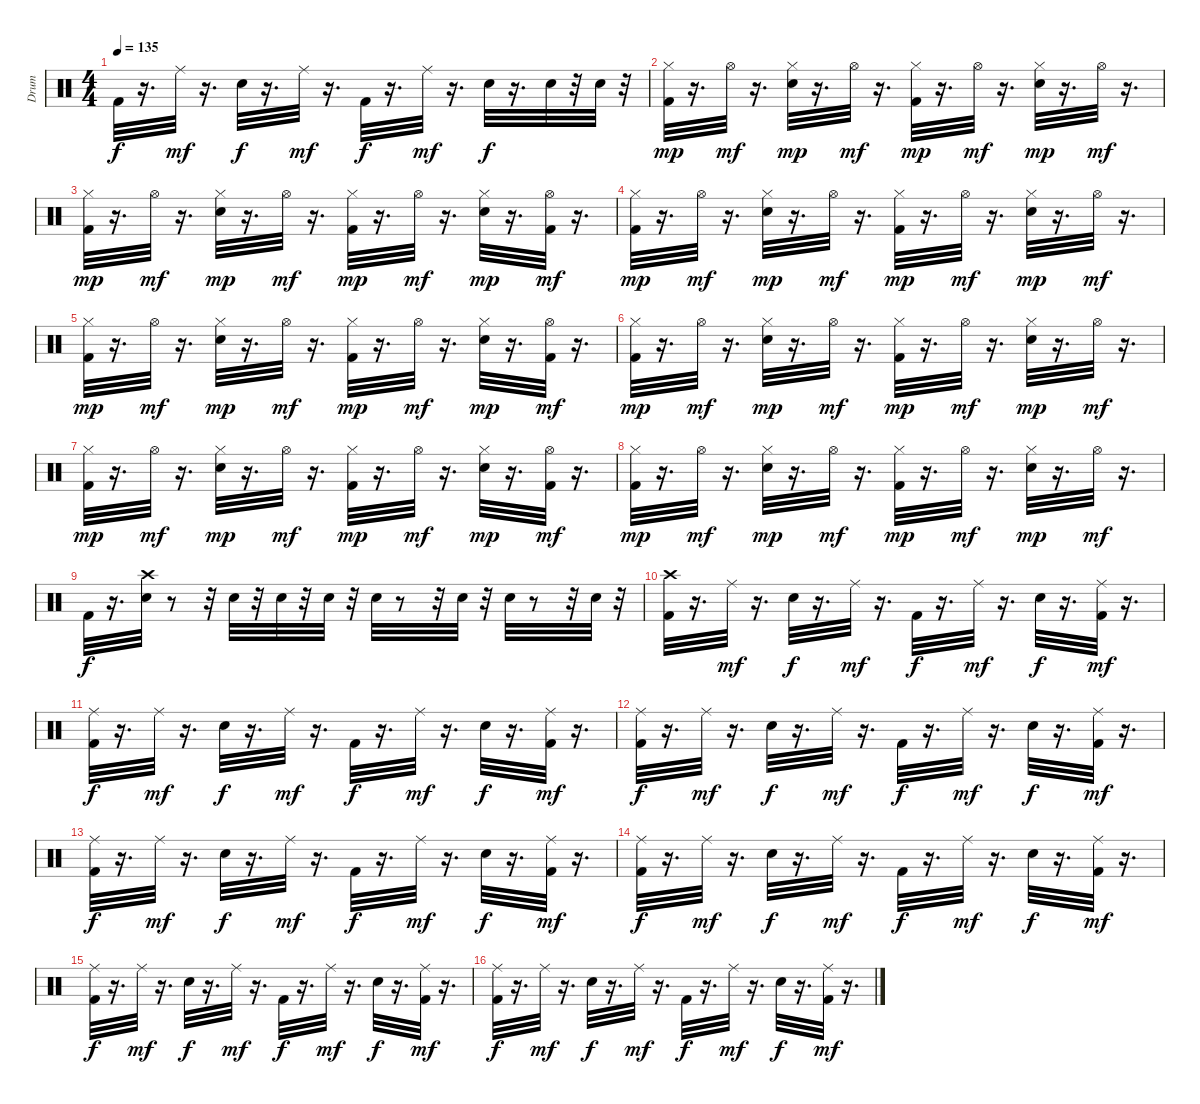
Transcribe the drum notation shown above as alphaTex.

\track ("Drum" "Drum") {instrument percussion}
\staff {score}
\articulation defaults
\ts (4 4)
\tempo 135
\clef neutral
\ks c "Kick (hit) 2".32{dy f}
r.16{d} "Ride (middle)".32{dy mf} r.16{d} "Electric Snare (hit)".32{dy f} r.16{d} "Ride (middle)".32{dy mf} r.16{d} "Kick (hit) 2".32{dy f} r.16{d} "Ride (middle)".32{dy mf} r.16{d} "Electric Snare (hit)".32{dy f} r.16{d} "Electric Snare (hit)".32 r.32 "Electric Snare (hit)".32 r.32 |
("Hi-Hat (closed)" "Kick (hit) 2").32{dy mp} r.16{d} "Hi-Hat (open)".32{dy mf} r.16{d} ("Hi-Hat (closed)" "Electric Snare (hit)").32{dy mp} r.16{d} "Hi-Hat (open)".32{dy mf} r.16{d} ("Hi-Hat (closed)" "Kick (hit) 2").32{dy mp} r.16{d} "Hi-Hat (open)".32{dy mf} r.16{d} ("Hi-Hat (closed)" "Electric Snare (hit)").32{dy mp} r.16{d} "Hi-Hat (open)".32{dy mf} r.16{d} |
("Hi-Hat (closed)" "Kick (hit) 2").32{dy mp} r.16{d} "Hi-Hat (open)".32{dy mf} r.16{d} ("Hi-Hat (closed)" "Electric Snare (hit)").32{dy mp} r.16{d} "Hi-Hat (open)".32{dy mf} r.16{d} ("Hi-Hat (closed)" "Kick (hit) 2").32{dy mp} r.16{d} "Hi-Hat (open)".32{dy mf} r.16{d} ("Hi-Hat (closed)" "Electric Snare (hit)").32{dy mp} r.16{d} ("Hi-Hat (open)" "Kick (hit) 2").32{dy mf} r.16{d} |
("Hi-Hat (closed)" "Kick (hit) 2").32{dy mp} r.16{d} "Hi-Hat (open)".32{dy mf} r.16{d} ("Hi-Hat (closed)" "Electric Snare (hit)").32{dy mp} r.16{d} "Hi-Hat (open)".32{dy mf} r.16{d} ("Hi-Hat (closed)" "Kick (hit) 2").32{dy mp} r.16{d} "Hi-Hat (open)".32{dy mf} r.16{d} ("Hi-Hat (closed)" "Electric Snare (hit)").32{dy mp} r.16{d} "Hi-Hat (open)".32{dy mf} r.16{d} |
("Hi-Hat (closed)" "Kick (hit) 2").32{dy mp} r.16{d} "Hi-Hat (open)".32{dy mf} r.16{d} ("Hi-Hat (closed)" "Electric Snare (hit)").32{dy mp} r.16{d} "Hi-Hat (open)".32{dy mf} r.16{d} ("Hi-Hat (closed)" "Kick (hit) 2").32{dy mp} r.16{d} "Hi-Hat (open)".32{dy mf} r.16{d} ("Hi-Hat (closed)" "Electric Snare (hit)").32{dy mp} r.16{d} ("Hi-Hat (open)" "Kick (hit) 2").32{dy mf} r.16{d} |
("Hi-Hat (closed)" "Kick (hit) 2").32{dy mp} r.16{d} "Hi-Hat (open)".32{dy mf} r.16{d} ("Hi-Hat (closed)" "Electric Snare (hit)").32{dy mp} r.16{d} "Hi-Hat (open)".32{dy mf} r.16{d} ("Hi-Hat (closed)" "Kick (hit) 2").32{dy mp} r.16{d} "Hi-Hat (open)".32{dy mf} r.16{d} ("Hi-Hat (closed)" "Electric Snare (hit)").32{dy mp} r.16{d} "Hi-Hat (open)".32{dy mf} r.16{d} |
("Hi-Hat (closed)" "Kick (hit) 2").32{dy mp} r.16{d} "Hi-Hat (open)".32{dy mf} r.16{d} ("Hi-Hat (closed)" "Electric Snare (hit)").32{dy mp} r.16{d} "Hi-Hat (open)".32{dy mf} r.16{d} ("Hi-Hat (closed)" "Kick (hit) 2").32{dy mp} r.16{d} "Hi-Hat (open)".32{dy mf} r.16{d} ("Hi-Hat (closed)" "Electric Snare (hit)").32{dy mp} r.16{d} ("Hi-Hat (open)" "Kick (hit) 2").32{dy mf} r.16{d} |
("Hi-Hat (closed)" "Kick (hit) 2").32{dy mp} r.16{d} "Hi-Hat (open)".32{dy mf} r.16{d} ("Hi-Hat (closed)" "Electric Snare (hit)").32{dy mp} r.16{d} "Hi-Hat (open)".32{dy mf} r.16{d} ("Hi-Hat (closed)" "Kick (hit) 2").32{dy mp} r.16{d} "Hi-Hat (open)".32{dy mf} r.16{d} ("Hi-Hat (closed)" "Electric Snare (hit)").32{dy mp} r.16{d} "Hi-Hat (open)".32{dy mf} r.16{d} |
"Kick (hit) 2".32{dy f} r.16{d} ("Crash high (hit)" "Electric Snare (hit)").32 r.8 r.32 "Electric Snare (hit)".32 r.32 "Electric Snare (hit)".32 r.32 "Electric Snare (hit)".32 r.32 "Electric Snare (hit)".32 r.8 r.32 "Electric Snare (hit)".32 r.32 "Electric Snare (hit)".32 r.8 r.32 "Electric Snare (hit)".32 r.32 |
("Crash high (hit)" "Kick (hit) 2").32 r.16{d} "Ride (middle)".32{dy mf} r.16{d} "Electric Snare (hit)".32{dy f} r.16{d} "Ride (middle)".32{dy mf} r.16{d} "Kick (hit) 2".32{dy f} r.16{d} "Ride (middle)".32{dy mf} r.16{d} "Electric Snare (hit)".32{dy f} r.16{d} ("Ride (middle)" "Kick (hit) 2").32{dy mf} r.16{d} |
("Ride (middle)" "Kick (hit) 2").32{dy f} r.16{d} "Ride (middle)".32{dy mf} r.16{d} "Electric Snare (hit)".32{dy f} r.16{d} "Ride (middle)".32{dy mf} r.16{d} "Kick (hit) 2".32{dy f} r.16{d} "Ride (middle)".32{dy mf} r.16{d} "Electric Snare (hit)".32{dy f} r.16{d} ("Ride (middle)" "Kick (hit) 2").32{dy mf} r.16{d} |
("Ride (middle)" "Kick (hit) 2").32{dy f} r.16{d} "Ride (middle)".32{dy mf} r.16{d} "Electric Snare (hit)".32{dy f} r.16{d} "Ride (middle)".32{dy mf} r.16{d} "Kick (hit) 2".32{dy f} r.16{d} "Ride (middle)".32{dy mf} r.16{d} "Electric Snare (hit)".32{dy f} r.16{d} ("Ride (middle)" "Kick (hit) 2").32{dy mf} r.16{d} |
("Ride (middle)" "Kick (hit) 2").32{dy f} r.16{d} "Ride (middle)".32{dy mf} r.16{d} "Electric Snare (hit)".32{dy f} r.16{d} "Ride (middle)".32{dy mf} r.16{d} "Kick (hit) 2".32{dy f} r.16{d} "Ride (middle)".32{dy mf} r.16{d} "Electric Snare (hit)".32{dy f} r.16{d} ("Ride (middle)" "Kick (hit) 2").32{dy mf} r.16{d} |
("Ride (middle)" "Kick (hit) 2").32{dy f} r.16{d} "Ride (middle)".32{dy mf} r.16{d} "Electric Snare (hit)".32{dy f} r.16{d} "Ride (middle)".32{dy mf} r.16{d} "Kick (hit) 2".32{dy f} r.16{d} "Ride (middle)".32{dy mf} r.16{d} "Electric Snare (hit)".32{dy f} r.16{d} ("Ride (middle)" "Kick (hit) 2").32{dy mf} r.16{d} |
("Ride (middle)" "Kick (hit) 2").32{dy f} r.16{d} "Ride (middle)".32{dy mf} r.16{d} "Electric Snare (hit)".32{dy f} r.16{d} "Ride (middle)".32{dy mf} r.16{d} "Kick (hit) 2".32{dy f} r.16{d} "Ride (middle)".32{dy mf} r.16{d} "Electric Snare (hit)".32{dy f} r.16{d} ("Ride (middle)" "Kick (hit) 2").32{dy mf} r.16{d} |
("Ride (middle)" "Kick (hit) 2").32{dy f} r.16{d} "Ride (middle)".32{dy mf} r.16{d} "Electric Snare (hit)".32{dy f} r.16{d} "Ride (middle)".32{dy mf} r.16{d} "Kick (hit) 2".32{dy f} r.16{d} "Ride (middle)".32{dy mf} r.16{d} "Electric Snare (hit)".32{dy f} r.16{d} ("Ride (middle)" "Kick (hit) 2").32{dy mf} r.16{d}
